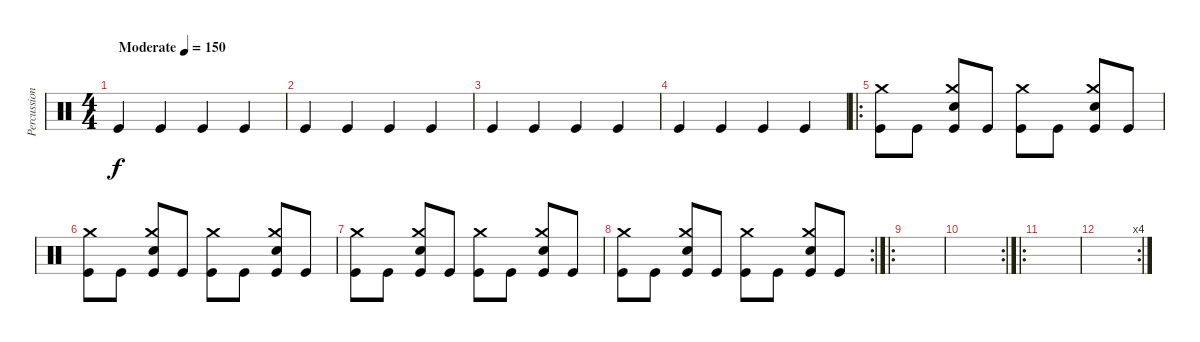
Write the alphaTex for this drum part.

\track ("Percussion" "Percussion") {instrument percussion}
\staff {score}
\articulation defaults
\ts (4 4)
\tempo (150 "Moderate")
\clef neutral
\ks c "Kick (hit)".4{dy f} "Kick (hit)".4 "Kick (hit)".4 "Kick (hit)".4
|
"Kick (hit)".4 "Kick (hit)".4 "Kick (hit)".4 "Kick (hit)".4 |
"Kick (hit)".4 "Kick (hit)".4 "Kick (hit)".4 "Kick (hit)".4 |
"Kick (hit)".4 "Kick (hit)".4 "Kick (hit)".4 "Kick (hit)".4 |
\ro
("Crash medium (hit)" "Kick (hit)").8 "Kick (hit)".8 ("Crash medium (hit)" "Snare (hit) 2" "Kick (hit)").8 "Kick (hit)".8 ("Crash medium (hit)" "Kick (hit)").8 "Kick (hit)".8 ("Crash medium (hit)" "Snare (hit) 2" "Kick (hit)").8 "Kick (hit)".8 |
("Crash medium (hit)" "Kick (hit)").8 "Kick (hit)".8 ("Crash medium (hit)" "Snare (hit) 2" "Kick (hit)").8 "Kick (hit)".8 ("Crash medium (hit)" "Kick (hit)").8 "Kick (hit)".8 ("Crash medium (hit)" "Snare (hit) 2" "Kick (hit)").8 "Kick (hit)".8 |
("Crash medium (hit)" "Kick (hit)").8 "Kick (hit)".8 ("Crash medium (hit)" "Snare (hit) 2" "Kick (hit)").8 "Kick (hit)".8 ("Crash medium (hit)" "Kick (hit)").8 "Kick (hit)".8 ("Crash medium (hit)" "Snare (hit) 2" "Kick (hit)").8 "Kick (hit)".8 |
\rc 2
("Crash medium (hit)" "Kick (hit)").8 "Kick (hit)".8 ("Crash medium (hit)" "Snare (hit) 2" "Kick (hit)").8 "Kick (hit)".8 ("Crash medium (hit)" "Kick (hit)").8 "Kick (hit)".8 ("Crash medium (hit)" "Snare (hit) 2" "Kick (hit)").8 "Kick (hit)".8 |
\ro
|
\rc 2
|
\ro
|
\rc 4
